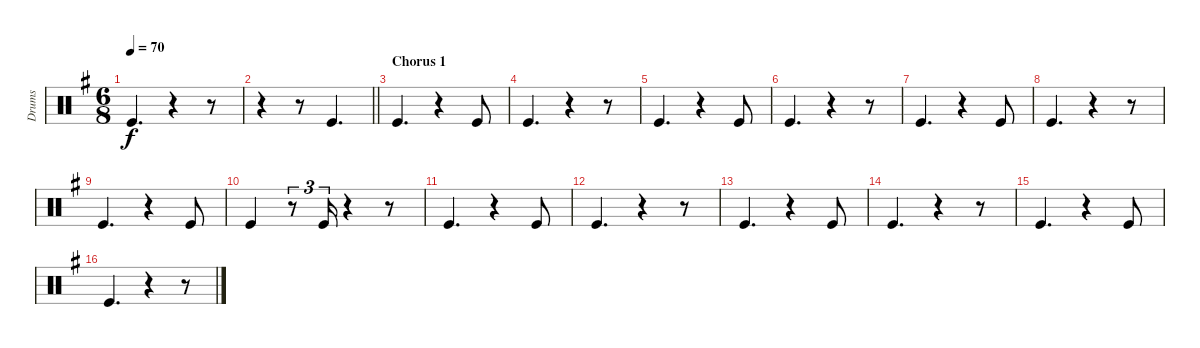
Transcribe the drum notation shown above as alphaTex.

\track ("Drums" "Drums") {instrument percussion}
\staff {score}
\articulation defaults
\ts (6 8)
\tempo 70
\clef neutral
\ks g "Kick (hit)".4{d dy f}
r.4 r.8 |
\barLineRight lightlight
r.4 r.8 "Kick (hit)".4{d} |
\section ("" "Chorus 1")
"Kick (hit)".4{d} r.4 "Kick (hit)".8 |
"Kick (hit)".4{d} r.4 r.8 |
"Kick (hit)".4{d} r.4 "Kick (hit)".8 |
"Kick (hit)".4{d} r.4 r.8 |
"Kick (hit)".4{d} r.4 "Kick (hit)".8 |
"Kick (hit)".4{d} r.4 r.8 |
"Kick (hit)".4{d} r.4 "Kick (hit)".8 |
"Kick (hit)".4 r.8{tu (3 2)} "Kick (hit)".16{tu (3 2)} r.4 r.8 |
"Kick (hit)".4{d} r.4 "Kick (hit)".8 |
"Kick (hit)".4{d} r.4 r.8 |
"Kick (hit)".4{d} r.4 "Kick (hit)".8 |
"Kick (hit)".4{d} r.4 r.8 |
"Kick (hit)".4{d} r.4 "Kick (hit)".8 |
"Kick (hit)".4{d} r.4 r.8
